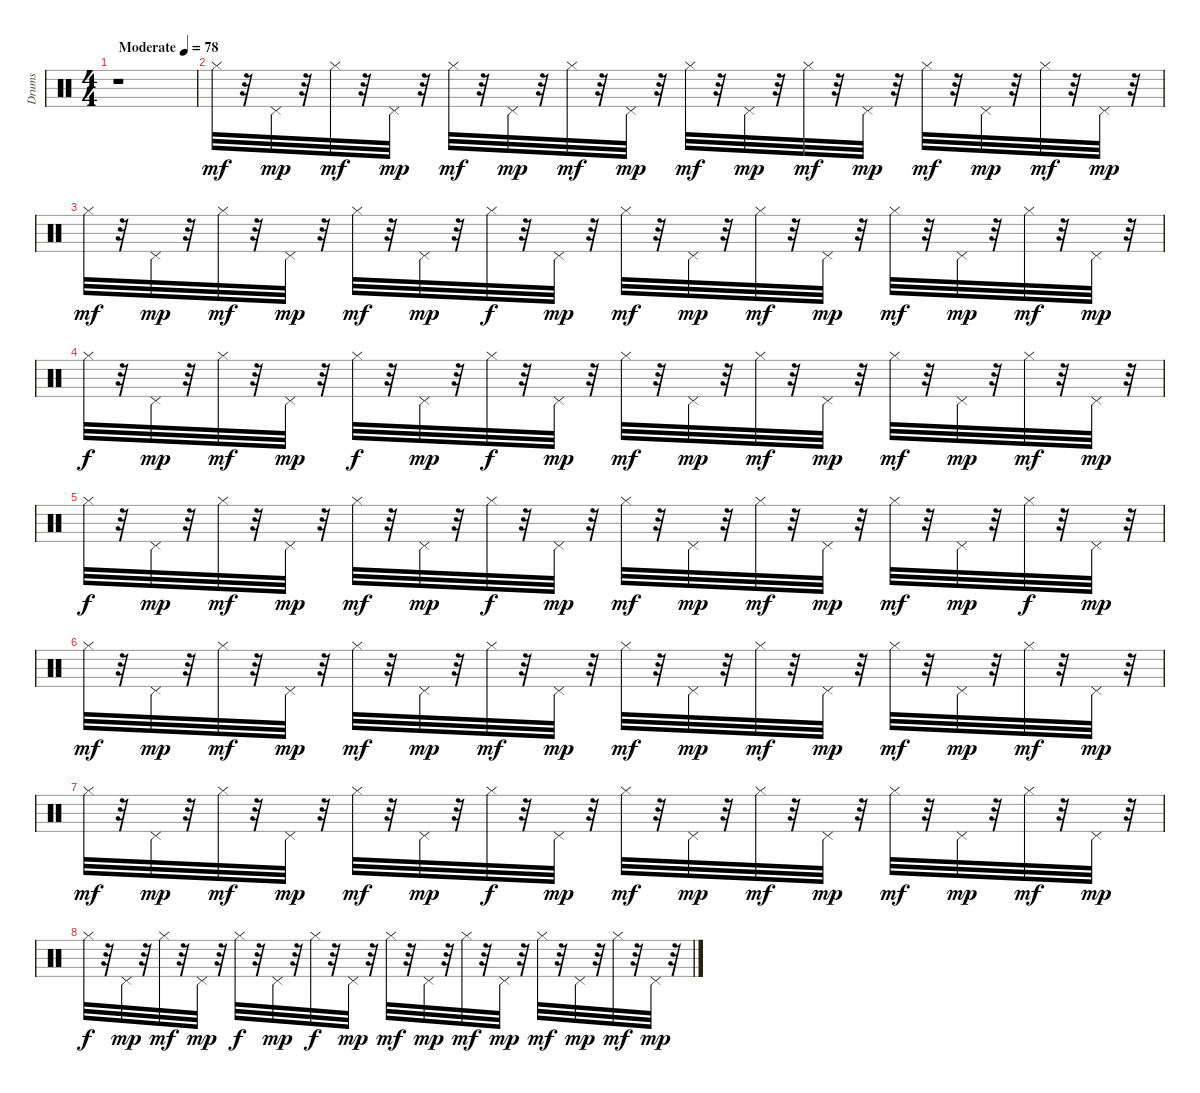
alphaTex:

\track ("Drums   " "Drums   ") {instrument percussion}
\staff {score}
\articulation defaults
\ts (4 4)
\tempo (78 "Moderate")
\clef neutral
\ks c
r.1{dy mf} |
"Hi-Hat (closed)".32 r.32 "Pedal Hi-Hat (hit)".32{dy mp} r.32 "Hi-Hat (closed)".32{dy mf} r.32 "Pedal Hi-Hat (hit)".32{dy mp} r.32 "Hi-Hat (closed)".32{dy mf} r.32 "Pedal Hi-Hat (hit)".32{dy mp} r.32 "Hi-Hat (closed)".32{dy mf} r.32 "Pedal Hi-Hat (hit)".32{dy mp} r.32 "Hi-Hat (closed)".32{dy mf} r.32 "Pedal Hi-Hat (hit)".32{dy mp} r.32 "Hi-Hat (closed)".32{dy mf} r.32 "Pedal Hi-Hat (hit)".32{dy mp} r.32 "Hi-Hat (closed)".32{dy mf} r.32 "Pedal Hi-Hat (hit)".32{dy mp} r.32 "Hi-Hat (closed)".32{dy mf} r.32 "Pedal Hi-Hat (hit)".32{dy mp} r.32 |
"Hi-Hat (closed)".32{dy mf} r.32 "Pedal Hi-Hat (hit)".32{dy mp} r.32 "Hi-Hat (closed)".32{dy mf} r.32 "Pedal Hi-Hat (hit)".32{dy mp} r.32 "Hi-Hat (closed)".32{dy mf} r.32 "Pedal Hi-Hat (hit)".32{dy mp} r.32 "Hi-Hat (closed)".32{dy f} r.32 "Pedal Hi-Hat (hit)".32{dy mp} r.32 "Hi-Hat (closed)".32{dy mf} r.32 "Pedal Hi-Hat (hit)".32{dy mp} r.32 "Hi-Hat (closed)".32{dy mf} r.32 "Pedal Hi-Hat (hit)".32{dy mp} r.32 "Hi-Hat (closed)".32{dy mf} r.32 "Pedal Hi-Hat (hit)".32{dy mp} r.32 "Hi-Hat (closed)".32{dy mf} r.32 "Pedal Hi-Hat (hit)".32{dy mp} r.32 |
"Hi-Hat (closed)".32{dy f} r.32 "Pedal Hi-Hat (hit)".32{dy mp} r.32 "Hi-Hat (closed)".32{dy mf} r.32 "Pedal Hi-Hat (hit)".32{dy mp} r.32 "Hi-Hat (closed)".32{dy f} r.32 "Pedal Hi-Hat (hit)".32{dy mp} r.32 "Hi-Hat (closed)".32{dy f} r.32 "Pedal Hi-Hat (hit)".32{dy mp} r.32 "Hi-Hat (closed)".32{dy mf} r.32 "Pedal Hi-Hat (hit)".32{dy mp} r.32 "Hi-Hat (closed)".32{dy mf} r.32 "Pedal Hi-Hat (hit)".32{dy mp} r.32 "Hi-Hat (closed)".32{dy mf} r.32 "Pedal Hi-Hat (hit)".32{dy mp} r.32 "Hi-Hat (closed)".32{dy mf} r.32 "Pedal Hi-Hat (hit)".32{dy mp} r.32 |
"Hi-Hat (closed)".32{dy f} r.32 "Pedal Hi-Hat (hit)".32{dy mp} r.32 "Hi-Hat (closed)".32{dy mf} r.32 "Pedal Hi-Hat (hit)".32{dy mp} r.32 "Hi-Hat (closed)".32{dy mf} r.32 "Pedal Hi-Hat (hit)".32{dy mp} r.32 "Hi-Hat (closed)".32{dy f} r.32 "Pedal Hi-Hat (hit)".32{dy mp} r.32 "Hi-Hat (closed)".32{dy mf} r.32 "Pedal Hi-Hat (hit)".32{dy mp} r.32 "Hi-Hat (closed)".32{dy mf} r.32 "Pedal Hi-Hat (hit)".32{dy mp} r.32 "Hi-Hat (closed)".32{dy mf} r.32 "Pedal Hi-Hat (hit)".32{dy mp} r.32 "Hi-Hat (closed)".32{dy f} r.32 "Pedal Hi-Hat (hit)".32{dy mp} r.32 |
"Hi-Hat (closed)".32{dy mf} r.32 "Pedal Hi-Hat (hit)".32{dy mp} r.32 "Hi-Hat (closed)".32{dy mf} r.32 "Pedal Hi-Hat (hit)".32{dy mp} r.32 "Hi-Hat (closed)".32{dy mf} r.32 "Pedal Hi-Hat (hit)".32{dy mp} r.32 "Hi-Hat (closed)".32{dy mf} r.32 "Pedal Hi-Hat (hit)".32{dy mp} r.32 "Hi-Hat (closed)".32{dy mf} r.32 "Pedal Hi-Hat (hit)".32{dy mp} r.32 "Hi-Hat (closed)".32{dy mf} r.32 "Pedal Hi-Hat (hit)".32{dy mp} r.32 "Hi-Hat (closed)".32{dy mf} r.32 "Pedal Hi-Hat (hit)".32{dy mp} r.32 "Hi-Hat (closed)".32{dy mf} r.32 "Pedal Hi-Hat (hit)".32{dy mp} r.32 |
"Hi-Hat (closed)".32{dy mf} r.32 "Pedal Hi-Hat (hit)".32{dy mp} r.32 "Hi-Hat (closed)".32{dy mf} r.32 "Pedal Hi-Hat (hit)".32{dy mp} r.32 "Hi-Hat (closed)".32{dy mf} r.32 "Pedal Hi-Hat (hit)".32{dy mp} r.32 "Hi-Hat (closed)".32{dy f} r.32 "Pedal Hi-Hat (hit)".32{dy mp} r.32 "Hi-Hat (closed)".32{dy mf} r.32 "Pedal Hi-Hat (hit)".32{dy mp} r.32 "Hi-Hat (closed)".32{dy mf} r.32 "Pedal Hi-Hat (hit)".32{dy mp} r.32 "Hi-Hat (closed)".32{dy mf} r.32 "Pedal Hi-Hat (hit)".32{dy mp} r.32 "Hi-Hat (closed)".32{dy mf} r.32 "Pedal Hi-Hat (hit)".32{dy mp} r.32 |
"Hi-Hat (closed)".32{dy f} r.32 "Pedal Hi-Hat (hit)".32{dy mp} r.32 "Hi-Hat (closed)".32{dy mf} r.32 "Pedal Hi-Hat (hit)".32{dy mp} r.32 "Hi-Hat (closed)".32{dy f} r.32 "Pedal Hi-Hat (hit)".32{dy mp} r.32 "Hi-Hat (closed)".32{dy f} r.32 "Pedal Hi-Hat (hit)".32{dy mp} r.32 "Hi-Hat (closed)".32{dy mf} r.32 "Pedal Hi-Hat (hit)".32{dy mp} r.32 "Hi-Hat (closed)".32{dy mf} r.32 "Pedal Hi-Hat (hit)".32{dy mp} r.32 "Hi-Hat (closed)".32{dy mf} r.32 "Pedal Hi-Hat (hit)".32{dy mp} r.32 "Hi-Hat (closed)".32{dy mf} r.32 "Pedal Hi-Hat (hit)".32{dy mp} r.32
